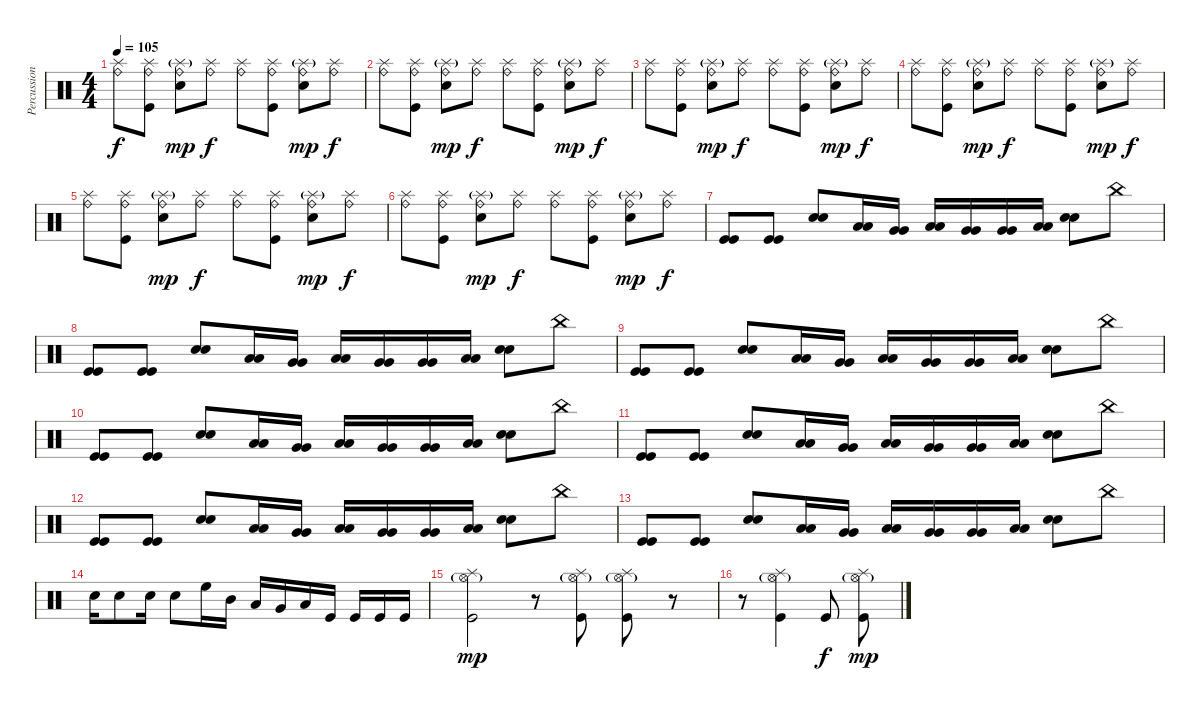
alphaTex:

\track ("Percussion" "Percussion") {instrument percussion}
\staff {score}
\articulation defaults
\ts (4 4)
\tempo 105
\clef neutral
\ks c
("Ride (bell)" "Splash (hit)").8{dy f} ("Kick (hit)" "Ride (bell)" "Splash (hit)").8 ("Snare (hit) 2" "Ride (bell)" "Splash (hit)"{g}).8{dy mp} ("Ride (bell)" "Splash (hit)").8{dy f} ("Ride (bell)" "Splash (hit)").8 ("Kick (hit)" "Ride (bell)" "Splash (hit)").8 ("Snare (hit) 2" "Ride (bell)" "Splash (hit)"{g}).8{dy mp} ("Ride (bell)" "Splash (hit)").8{dy f} |
("Ride (bell)" "Splash (hit)").8 ("Kick (hit)" "Ride (bell)" "Splash (hit)").8 ("Snare (hit) 2" "Ride (bell)" "Splash (hit)"{g}).8{dy mp} ("Ride (bell)" "Splash (hit)").8{dy f} ("Ride (bell)" "Splash (hit)").8 ("Kick (hit)" "Ride (bell)" "Splash (hit)").8 ("Snare (hit) 2" "Ride (bell)" "Splash (hit)"{g}).8{dy mp} ("Ride (bell)" "Splash (hit)").8{dy f} |
("Ride (bell)" "Splash (hit)").8 ("Kick (hit)" "Ride (bell)" "Splash (hit)").8 ("Snare (hit) 2" "Ride (bell)" "Splash (hit)"{g}).8{dy mp} ("Ride (bell)" "Splash (hit)").8{dy f} ("Ride (bell)" "Splash (hit)").8 ("Kick (hit)" "Ride (bell)" "Splash (hit)").8 ("Snare (hit) 2" "Ride (bell)" "Splash (hit)"{g}).8{dy mp} ("Ride (bell)" "Splash (hit)").8{dy f} |
("Ride (bell)" "Splash (hit)").8 ("Kick (hit)" "Ride (bell)" "Splash (hit)").8 ("Snare (hit) 2" "Ride (bell)" "Splash (hit)"{g}).8{dy mp} ("Ride (bell)" "Splash (hit)").8{dy f} ("Ride (bell)" "Splash (hit)").8 ("Kick (hit)" "Ride (bell)" "Splash (hit)").8 ("Snare (hit) 2" "Ride (bell)" "Splash (hit)"{g}).8{dy mp} ("Ride (bell)" "Splash (hit)").8{dy f} |
("Ride (bell)" "Splash (hit)").8 ("Kick (hit)" "Ride (bell)" "Splash (hit)").8 ("Snare (hit) 2" "Ride (bell)" "Splash (hit)"{g}).8{dy mp} ("Ride (bell)" "Splash (hit)").8{dy f} ("Ride (bell)" "Splash (hit)").8 ("Kick (hit)" "Ride (bell)" "Splash (hit)").8 ("Snare (hit) 2" "Ride (bell)" "Splash (hit)"{g}).8{dy mp} ("Ride (bell)" "Splash (hit)").8{dy f} |
("Ride (bell)" "Splash (hit)").8 ("Kick (hit)" "Ride (bell)" "Splash (hit)").8 ("Snare (hit) 2" "Ride (bell)" "Splash (hit)"{g}).8{dy mp} ("Ride (bell)" "Splash (hit)").8{dy f} ("Ride (bell)" "Splash (hit)").8 ("Kick (hit)" "Ride (bell)" "Splash (hit)").8 ("Snare (hit) 2" "Ride (bell)" "Splash (hit)"{g}).8{dy mp} ("Ride (bell)" "Splash (hit)").8{dy f} |
("Kick (hit)" "Kick (hit)").8 ("Kick (hit)" "Kick (hit)").8 ("Snare (hit) 2" "Snare (hit) 2").8 ("Low Tom (hit)" "Low Tom (hit)").16 ("Very Low Tom (hit)" "Very Low Tom (hit)").16 ("Low Floor Tom (hit)" "Low Floor Tom (hit)").16 ("Very Low Tom (hit)" "Very Low Tom (hit)").16 ("Very Low Tom (hit)" "Very Low Tom (hit)").16 ("Low Floor Tom (hit)" "Low Floor Tom (hit)").16 ("Snare (hit) 2" "Snare (hit) 2").8 "China (hit)".8 |
("Kick (hit)" "Kick (hit)").8 ("Kick (hit)" "Kick (hit)").8 ("Snare (hit) 2" "Snare (hit) 2").8 ("Low Tom (hit)" "Low Tom (hit)").16 ("Very Low Tom (hit)" "Very Low Tom (hit)").16 ("Low Floor Tom (hit)" "Low Floor Tom (hit)").16 ("Very Low Tom (hit)" "Very Low Tom (hit)").16 ("Very Low Tom (hit)" "Very Low Tom (hit)").16 ("Low Floor Tom (hit)" "Low Floor Tom (hit)").16 ("Snare (hit) 2" "Snare (hit) 2").8 "China (hit)".8 |
("Kick (hit)" "Kick (hit)").8 ("Kick (hit)" "Kick (hit)").8 ("Snare (hit) 2" "Snare (hit) 2").8 ("Low Tom (hit)" "Low Tom (hit)").16 ("Very Low Tom (hit)" "Very Low Tom (hit)").16 ("Low Floor Tom (hit)" "Low Floor Tom (hit)").16 ("Very Low Tom (hit)" "Very Low Tom (hit)").16 ("Very Low Tom (hit)" "Very Low Tom (hit)").16 ("Low Floor Tom (hit)" "Low Floor Tom (hit)").16 ("Snare (hit) 2" "Snare (hit) 2").8 "China (hit)".8 |
("Kick (hit)" "Kick (hit)").8 ("Kick (hit)" "Kick (hit)").8 ("Snare (hit) 2" "Snare (hit) 2").8 ("Low Tom (hit)" "Low Tom (hit)").16 ("Very Low Tom (hit)" "Very Low Tom (hit)").16 ("Low Floor Tom (hit)" "Low Floor Tom (hit)").16 ("Very Low Tom (hit)" "Very Low Tom (hit)").16 ("Very Low Tom (hit)" "Very Low Tom (hit)").16 ("Low Floor Tom (hit)" "Low Floor Tom (hit)").16 ("Snare (hit) 2" "Snare (hit) 2").8 "China (hit)".8 |
("Kick (hit)" "Kick (hit)").8 ("Kick (hit)" "Kick (hit)").8 ("Snare (hit) 2" "Snare (hit) 2").8 ("Low Tom (hit)" "Low Tom (hit)").16 ("Very Low Tom (hit)" "Very Low Tom (hit)").16 ("Low Floor Tom (hit)" "Low Floor Tom (hit)").16 ("Very Low Tom (hit)" "Very Low Tom (hit)").16 ("Very Low Tom (hit)" "Very Low Tom (hit)").16 ("Low Floor Tom (hit)" "Low Floor Tom (hit)").16 ("Snare (hit) 2" "Snare (hit) 2").8 "China (hit)".8 |
("Kick (hit)" "Kick (hit)").8 ("Kick (hit)" "Kick (hit)").8 ("Snare (hit) 2" "Snare (hit) 2").8 ("Low Tom (hit)" "Low Tom (hit)").16 ("Very Low Tom (hit)" "Very Low Tom (hit)").16 ("Low Floor Tom (hit)" "Low Floor Tom (hit)").16 ("Very Low Tom (hit)" "Very Low Tom (hit)").16 ("Very Low Tom (hit)" "Very Low Tom (hit)").16 ("Low Floor Tom (hit)" "Low Floor Tom (hit)").16 ("Snare (hit) 2" "Snare (hit) 2").8 "China (hit)".8 |
("Kick (hit)" "Kick (hit)").8 ("Kick (hit)" "Kick (hit)").8 ("Snare (hit) 2" "Snare (hit) 2").8 ("Low Tom (hit)" "Low Tom (hit)").16 ("Very Low Tom (hit)" "Very Low Tom (hit)").16 ("Low Floor Tom (hit)" "Low Floor Tom (hit)").16 ("Very Low Tom (hit)" "Very Low Tom (hit)").16 ("Very Low Tom (hit)" "Very Low Tom (hit)").16 ("Low Floor Tom (hit)" "Low Floor Tom (hit)").16 ("Snare (hit) 2" "Snare (hit) 2").8 "China (hit)".8 |
"Snare (hit) 2".16 "Snare (hit) 2".8 "Snare (hit) 2".16 "Snare (hit) 2".8 "High Floor Tom (hit)".16 "Mid Tom (hit)".16 "Low Tom (hit)".16 "Very Low Tom (hit)".16 "Low Floor Tom (hit)".16 "Kick (hit)".16 "Kick (hit)".16 "Kick (hit)".16 "Kick (hit)".16 |
("Hi-Hat (open)"{g} "Splash (hit)" "Kick (hit)").2{dy mp} r.8 ("Hi-Hat (open)"{g} "Splash (hit)" "Kick (hit)").8 ("Hi-Hat (open)"{g} "Splash (hit)" "Kick (hit)").8 r.8 |
r.8 ("Hi-Hat (open)"{g} "Kick (hit)" "Splash (hit)").4 "Kick (hit)".8{dy f} ("Hi-Hat (open)"{g} "Splash (hit)" "Kick (hit)").8{dy mp}
